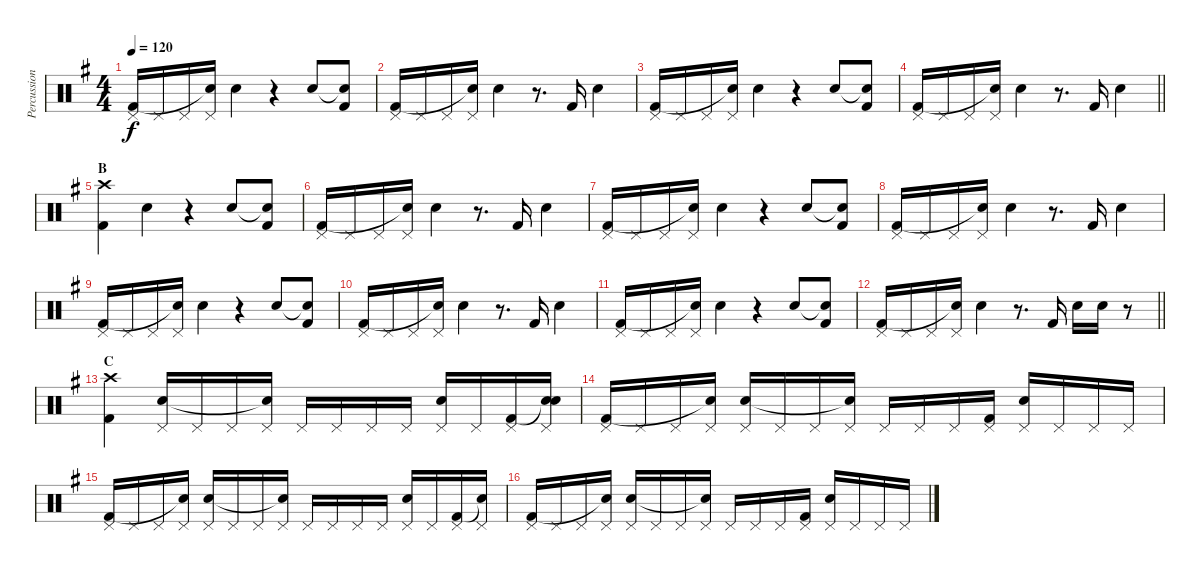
\track ("Percussion" "Percussion") {instrument percussion}
\staff {score}
\articulation defaults
\ts (4 4)
\tempo 120
\clef neutral
\ks g
("Pedal Hi-Hat (hit)" "Kick (hit) 2").16{dy f} "Pedal Hi-Hat (hit)".16 "Pedal Hi-Hat (hit)".16 ("Pedal Hi-Hat (hit)" "Snare (hit)"{t}).16 "Electric Snare (hit)".4 r.4 "Electric Snare (hit)".8 ("Snare (hit)"{t} "Kick (hit) 2").8 |
("Pedal Hi-Hat (hit)" "Kick (hit) 2").16 "Pedal Hi-Hat (hit)".16 "Pedal Hi-Hat (hit)".16 ("Pedal Hi-Hat (hit)" "Snare (hit)"{t}).16 "Electric Snare (hit)".4 r.8{d} "Kick (hit) 2".16 "Electric Snare (hit)".4 |
("Pedal Hi-Hat (hit)" "Kick (hit) 2").16 "Pedal Hi-Hat (hit)".16 "Pedal Hi-Hat (hit)".16 ("Pedal Hi-Hat (hit)" "Snare (hit)"{t}).16 "Electric Snare (hit)".4 r.4 "Electric Snare (hit)".8 ("Snare (hit)"{t} "Kick (hit) 2").8 |
\barLineRight lightlight
("Pedal Hi-Hat (hit)" "Kick (hit) 2").16 "Pedal Hi-Hat (hit)".16 "Pedal Hi-Hat (hit)".16 ("Pedal Hi-Hat (hit)" "Snare (hit)"{t}).16 "Electric Snare (hit)".4 r.8{d} "Kick (hit) 2".16 "Electric Snare (hit)".4 |
\section ("" "B")
("Crash high (hit)" "Kick (hit) 2").4 "Electric Snare (hit)".4 r.4 "Electric Snare (hit)".8 ("Snare (hit)"{t} "Kick (hit) 2").8 |
("Pedal Hi-Hat (hit)" "Kick (hit) 2").16 "Pedal Hi-Hat (hit)".16 "Pedal Hi-Hat (hit)".16 ("Pedal Hi-Hat (hit)" "Snare (hit)"{t}).16 "Electric Snare (hit)".4 r.8{d} "Kick (hit) 2".16 "Electric Snare (hit)".4 |
("Pedal Hi-Hat (hit)" "Kick (hit) 2").16 "Pedal Hi-Hat (hit)".16 "Pedal Hi-Hat (hit)".16 ("Pedal Hi-Hat (hit)" "Snare (hit)"{t}).16 "Electric Snare (hit)".4 r.4 "Electric Snare (hit)".8 ("Snare (hit)"{t} "Kick (hit) 2").8 |
("Pedal Hi-Hat (hit)" "Kick (hit) 2").16 "Pedal Hi-Hat (hit)".16 "Pedal Hi-Hat (hit)".16 ("Pedal Hi-Hat (hit)" "Snare (hit)"{t}).16 "Electric Snare (hit)".4 r.8{d} "Kick (hit) 2".16 "Electric Snare (hit)".4 |
("Pedal Hi-Hat (hit)" "Kick (hit) 2").16 "Pedal Hi-Hat (hit)".16 "Pedal Hi-Hat (hit)".16 ("Pedal Hi-Hat (hit)" "Snare (hit)"{t}).16 "Electric Snare (hit)".4 r.4 "Electric Snare (hit)".8 ("Snare (hit)"{t} "Kick (hit) 2").8 |
("Pedal Hi-Hat (hit)" "Kick (hit) 2").16 "Pedal Hi-Hat (hit)".16 "Pedal Hi-Hat (hit)".16 ("Pedal Hi-Hat (hit)" "Snare (hit)"{t}).16 "Electric Snare (hit)".4 r.8{d} "Kick (hit) 2".16 "Electric Snare (hit)".4 |
("Pedal Hi-Hat (hit)" "Kick (hit) 2").16 "Pedal Hi-Hat (hit)".16 "Pedal Hi-Hat (hit)".16 ("Pedal Hi-Hat (hit)" "Snare (hit)"{t}).16 "Electric Snare (hit)".4 r.4 "Electric Snare (hit)".8 ("Snare (hit)"{t} "Kick (hit) 2").8 |
\barLineRight lightlight
("Pedal Hi-Hat (hit)" "Kick (hit) 2").16 "Pedal Hi-Hat (hit)".16 "Pedal Hi-Hat (hit)".16 ("Pedal Hi-Hat (hit)" "Snare (hit)"{t}).16 "Electric Snare (hit)".4 r.8{d} "Kick (hit) 2".16 "Electric Snare (hit)".16 "Electric Snare (hit)".16 r.8 |
\section ("" "C")
("Crash high (hit)" "Kick (hit) 2").4 ("Pedal Hi-Hat (hit)" "Electric Snare (hit)").16 "Pedal Hi-Hat (hit)".16 "Pedal Hi-Hat (hit)".16 ("Pedal Hi-Hat (hit)" "Snare (hit)"{t}).16 "Pedal Hi-Hat (hit)".16 "Pedal Hi-Hat (hit)".16 "Pedal Hi-Hat (hit)".16 "Pedal Hi-Hat (hit)".16 ("Pedal Hi-Hat (hit)" "Electric Snare (hit)").16 "Pedal Hi-Hat (hit)".16 ("Pedal Hi-Hat (hit)" "Kick (hit) 2").16 ("Pedal Hi-Hat (hit)" "Snare (hit)"{t} "Snare (hit)").16 |
("Pedal Hi-Hat (hit)" "Kick (hit) 2").16 "Pedal Hi-Hat (hit)".16 "Pedal Hi-Hat (hit)".16 ("Pedal Hi-Hat (hit)" "Snare (hit)"{t}).16 ("Pedal Hi-Hat (hit)" "Electric Snare (hit)").16 "Pedal Hi-Hat (hit)".16 "Pedal Hi-Hat (hit)".16 ("Pedal Hi-Hat (hit)" "Snare (hit)"{t}).16 "Pedal Hi-Hat (hit)".16 "Pedal Hi-Hat (hit)".16 "Pedal Hi-Hat (hit)".16 ("Pedal Hi-Hat (hit)" "Kick (hit) 2").16 ("Pedal Hi-Hat (hit)" "Electric Snare (hit)").16 "Pedal Hi-Hat (hit)".16 "Pedal Hi-Hat (hit)".16 "Pedal Hi-Hat (hit)".16 |
("Pedal Hi-Hat (hit)" "Kick (hit) 2").16 "Pedal Hi-Hat (hit)".16 "Pedal Hi-Hat (hit)".16 ("Pedal Hi-Hat (hit)" "Snare (hit)"{t}).16 ("Pedal Hi-Hat (hit)" "Electric Snare (hit)").16 "Pedal Hi-Hat (hit)".16 "Pedal Hi-Hat (hit)".16 ("Pedal Hi-Hat (hit)" "Snare (hit)"{t}).16 "Pedal Hi-Hat (hit)".16 "Pedal Hi-Hat (hit)".16 "Pedal Hi-Hat (hit)".16 "Pedal Hi-Hat (hit)".16 ("Pedal Hi-Hat (hit)" "Electric Snare (hit)").16 "Pedal Hi-Hat (hit)".16 ("Pedal Hi-Hat (hit)" "Kick (hit) 2").16 ("Pedal Hi-Hat (hit)" "Snare (hit)"{t}).16 |
("Pedal Hi-Hat (hit)" "Kick (hit) 2").16 "Pedal Hi-Hat (hit)".16 "Pedal Hi-Hat (hit)".16 ("Pedal Hi-Hat (hit)" "Snare (hit)"{t}).16 ("Pedal Hi-Hat (hit)" "Electric Snare (hit)").16 "Pedal Hi-Hat (hit)".16 "Pedal Hi-Hat (hit)".16 ("Pedal Hi-Hat (hit)" "Snare (hit)"{t}).16 "Pedal Hi-Hat (hit)".16 "Pedal Hi-Hat (hit)".16 "Pedal Hi-Hat (hit)".16 ("Pedal Hi-Hat (hit)" "Kick (hit) 2").16 ("Pedal Hi-Hat (hit)" "Electric Snare (hit)").16 "Pedal Hi-Hat (hit)".16 "Pedal Hi-Hat (hit)".16 "Pedal Hi-Hat (hit)".16
